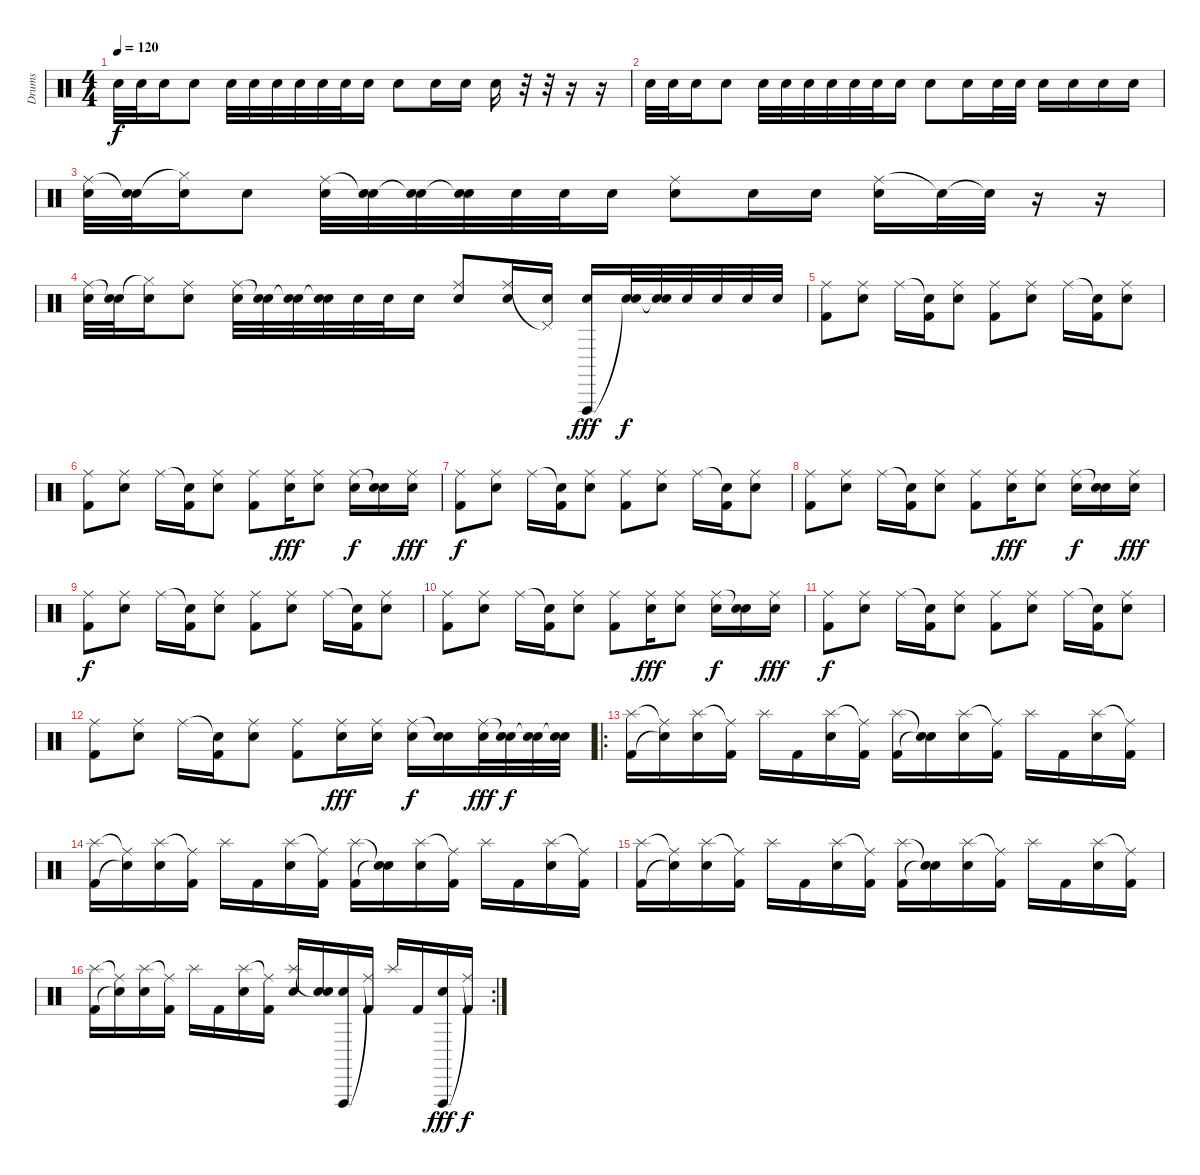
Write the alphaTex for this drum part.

\track ("Drums" "Drums") {instrument percussion}
\staff {score}
\articulation defaults
\ts (4 4)
\tempo 120
\clef neutral
\ks c "Electric Snare (hit)".32{dy f} "Electric Snare (hit)".32 "Electric Snare (hit)".16 "Electric Snare (hit)".8 "Electric Snare (hit)".32 "Electric Snare (hit)".32 "Electric Snare (hit)".32 "Electric Snare (hit)".32 "Electric Snare (hit)".32 "Electric Snare (hit)".32 "Electric Snare (hit)".16 "Electric Snare (hit)".8 "Electric Snare (hit)".16 "Electric Snare (hit)".16 "Electric Snare (hit)".16
r.32 r.32 r.16 r.16 |
"Electric Snare (hit)".32 "Electric Snare (hit)".32 "Electric Snare (hit)".16 "Electric Snare (hit)".8 "Electric Snare (hit)".32 "Electric Snare (hit)".32 "Electric Snare (hit)".32 "Electric Snare (hit)".32 "Electric Snare (hit)".32 "Electric Snare (hit)".32 "Electric Snare (hit)".16 "Electric Snare (hit)".8 "Electric Snare (hit)".16 "Electric Snare (hit)".32 "Electric Snare (hit)".32 "Electric Snare (hit)".16 "Electric Snare (hit)".16 "Electric Snare (hit)".16 "Electric Snare (hit)".16 |
("Ride (middle)" "Electric Snare (hit)").32 ("Snare (hit)"{t} "Electric Snare (hit)").32 ("Hi-Hat (closed)"{t} "Electric Snare (hit)").16 "Electric Snare (hit)".8 ("Ride (middle)" "Electric Snare (hit)").32 ("Snare (hit)"{t} "Electric Snare (hit)").32 ("Snare (hit)"{t} "Electric Snare (hit)").32 ("Snare (hit)"{t} "Electric Snare (hit)").32 "Electric Snare (hit)".32 "Electric Snare (hit)".32 "Electric Snare (hit)".16 ("Ride (middle)" "Electric Snare (hit)").8 "Electric Snare (hit)".16 "Electric Snare (hit)".16 ("Ride (middle)" "Electric Snare (hit)").16 "Snare (hit)"{t}.32 "Snare (hit)"{t}.32 r.16 r.16 |
("Ride (middle)" "Electric Snare (hit)").32 ("Snare (hit)"{t} "Electric Snare (hit)").32 ("Hi-Hat (closed)"{t} "Electric Snare (hit)").16 ("Ride (middle)" "Electric Snare (hit)").8 ("Ride (middle)" "Electric Snare (hit)").32 ("Snare (hit)"{t} "Electric Snare (hit)").32 ("Snare (hit)"{t} "Electric Snare (hit)").32 ("Snare (hit)"{t} "Electric Snare (hit)").32 "Electric Snare (hit)".32 "Electric Snare (hit)".32 "Electric Snare (hit)".16 ("Ride (middle)" "Electric Snare (hit)").8 ("Ride (middle)" "Electric Snare (hit)").16 ("Pedal Hi-Hat (hit)"{t} "Electric Snare (hit)").16 ("Vibraslap (hit)" "Electric Snare (hit)").16{dy fff} ("Snare (hit)"{t} "Electric Snare (hit)").32{dy f} ("Snare (hit)"{t} "Electric Snare (hit)").32 "Electric Snare (hit)".32 "Electric Snare (hit)".32 "Electric Snare (hit)".32 "Electric Snare (hit)".32 |
("Ride (middle)" "Kick (hit) 2").8 ("Ride (middle)" "Electric Snare (hit)").8 "Ride (middle)".16 ("Snare (hit)"{t} "Kick (hit) 2").16 ("Ride (middle)" "Electric Snare (hit)").8 ("Ride (middle)" "Kick (hit) 2").8 ("Ride (middle)" "Electric Snare (hit)").8 "Ride (middle)".16 ("Snare (hit)"{t} "Kick (hit) 2").16 ("Ride (middle)" "Electric Snare (hit)").8 |
("Ride (middle)" "Kick (hit) 2").8 ("Ride (middle)" "Electric Snare (hit)").8 "Ride (middle)".16 ("Snare (hit)"{t} "Kick (hit) 2").16 ("Ride (middle)" "Electric Snare (hit)").8 ("Ride (middle)" "Kick (hit) 2").8 ("Ride (middle)" "Electric Snare (hit)").16{dy fff} ("Ride (middle)" "Electric Snare (hit)").8 ("Ride (middle)" "Electric Snare (hit)").16{dy f} ("Snare (hit)"{t} "Electric Snare (hit)").16 ("Ride (middle)" "Electric Snare (hit)").16{dy fff} |
("Ride (middle)" "Kick (hit) 2").8{dy f} ("Ride (middle)" "Electric Snare (hit)").8 "Ride (middle)".16 ("Snare (hit)"{t} "Kick (hit) 2").16 ("Ride (middle)" "Electric Snare (hit)").8 ("Ride (middle)" "Kick (hit) 2").8 ("Ride (middle)" "Electric Snare (hit)").8 "Ride (middle)".16 ("Snare (hit)"{t} "Kick (hit) 2").16 ("Ride (middle)" "Electric Snare (hit)").8 |
("Ride (middle)" "Kick (hit) 2").8 ("Ride (middle)" "Electric Snare (hit)").8 "Ride (middle)".16 ("Snare (hit)"{t} "Kick (hit) 2").16 ("Ride (middle)" "Electric Snare (hit)").8 ("Ride (middle)" "Kick (hit) 2").8 ("Ride (middle)" "Electric Snare (hit)").16{dy fff} ("Ride (middle)" "Electric Snare (hit)").8 ("Ride (middle)" "Electric Snare (hit)").16{dy f} ("Snare (hit)"{t} "Electric Snare (hit)").16 ("Ride (middle)" "Electric Snare (hit)").16{dy fff} |
("Ride (middle)" "Kick (hit) 2").8{dy f} ("Ride (middle)" "Electric Snare (hit)").8 "Ride (middle)".16 ("Snare (hit)"{t} "Kick (hit) 2").16 ("Ride (middle)" "Electric Snare (hit)").8 ("Ride (middle)" "Kick (hit) 2").8 ("Ride (middle)" "Electric Snare (hit)").8 "Ride (middle)".16 ("Snare (hit)"{t} "Kick (hit) 2").16 ("Ride (middle)" "Electric Snare (hit)").8 |
("Ride (middle)" "Kick (hit) 2").8 ("Ride (middle)" "Electric Snare (hit)").8 "Ride (middle)".16 ("Snare (hit)"{t} "Kick (hit) 2").16 ("Ride (middle)" "Electric Snare (hit)").8 ("Ride (middle)" "Kick (hit) 2").8 ("Ride (middle)" "Electric Snare (hit)").16{dy fff} ("Ride (middle)" "Electric Snare (hit)").8 ("Ride (middle)" "Electric Snare (hit)").16{dy f} ("Snare (hit)"{t} "Electric Snare (hit)").16 ("Ride (middle)" "Electric Snare (hit)").16{dy fff} |
("Ride (middle)" "Kick (hit) 2").8{dy f} ("Ride (middle)" "Electric Snare (hit)").8 "Ride (middle)".16 ("Snare (hit)"{t} "Kick (hit) 2").16 ("Ride (middle)" "Electric Snare (hit)").8 ("Ride (middle)" "Kick (hit) 2").8 ("Ride (middle)" "Electric Snare (hit)").8 "Ride (middle)".16 ("Snare (hit)"{t} "Kick (hit) 2").16 ("Ride (middle)" "Electric Snare (hit)").8 |
("Ride (middle)" "Kick (hit) 2").8 ("Ride (middle)" "Electric Snare (hit)").8 "Ride (middle)".16 ("Snare (hit)"{t} "Kick (hit) 2").16 ("Ride (middle)" "Electric Snare (hit)").8 ("Ride (middle)" "Kick (hit) 2").8 ("Ride (middle)" "Electric Snare (hit)").16{dy fff} ("Ride (middle)" "Electric Snare (hit)").16 ("Ride (middle)" "Electric Snare (hit)").16{dy f} ("Snare (hit)"{t} "Electric Snare (hit)").16 ("Ride (middle)" "Electric Snare (hit)").32{dy fff} ("Snare (hit)"{t} "Electric Snare (hit)").32{dy f} ("Snare (hit)"{t} "Electric Snare (hit)").32 ("Snare (hit)"{t} "Electric Snare (hit)").32 |
\ro
("Splash (hit)" "Kick (hit) 2").16 ("Ride (middle)"{t} "Snare (hit)"{t}).16 ("Splash (hit)" "Electric Snare (hit)").16 ("Ride (middle)"{t} "Kick (hit) 2").16 "Splash (hit)".16 "Kick (hit) 2".16 ("Splash (hit)" "Electric Snare (hit)").16 ("Ride (middle)"{t} "Kick (hit) 2").16 ("Splash (hit)" "Kick (hit) 2").16 ("Snare (hit)"{t} "Snare (hit)"{t}).16 ("Splash (hit)" "Electric Snare (hit)").16 ("Ride (middle)"{t} "Kick (hit) 2").16 "Splash (hit)".16 "Kick (hit) 2".16 ("Splash (hit)" "Electric Snare (hit)").16 ("Ride (middle)"{t} "Kick (hit) 2").16 |
("Splash (hit)" "Kick (hit) 2").16 ("Ride (middle)"{t} "Snare (hit)"{t}).16 ("Splash (hit)" "Electric Snare (hit)").16 ("Ride (middle)"{t} "Kick (hit) 2").16 "Splash (hit)".16 "Kick (hit) 2".16 ("Splash (hit)" "Electric Snare (hit)").16 ("Ride (middle)"{t} "Kick (hit) 2").16 ("Splash (hit)" "Kick (hit) 2").16 ("Snare (hit)"{t} "Snare (hit)"{t}).16 ("Splash (hit)" "Electric Snare (hit)").16 ("Ride (middle)"{t} "Kick (hit) 2").16 "Splash (hit)".16 "Kick (hit) 2".16 ("Splash (hit)" "Electric Snare (hit)").16 ("Ride (middle)"{t} "Kick (hit) 2").16 |
("Splash (hit)" "Kick (hit) 2").16 ("Ride (middle)"{t} "Snare (hit)"{t}).16 ("Splash (hit)" "Electric Snare (hit)").16 ("Ride (middle)"{t} "Kick (hit) 2").16 "Splash (hit)".16 "Kick (hit) 2".16 ("Splash (hit)" "Electric Snare (hit)").16 ("Ride (middle)"{t} "Kick (hit) 2").16 ("Splash (hit)" "Kick (hit) 2").16 ("Snare (hit)"{t} "Snare (hit)"{t}).16 ("Splash (hit)" "Electric Snare (hit)").16 ("Ride (middle)"{t} "Kick (hit) 2").16 "Splash (hit)".16 "Kick (hit) 2".16 ("Splash (hit)" "Electric Snare (hit)").16 ("Ride (middle)"{t} "Kick (hit) 2").16 |
\rc 2
("Splash (hit)" "Kick (hit) 2").16 ("Ride (middle)"{t} "Snare (hit)"{t}).16 ("Splash (hit)" "Electric Snare (hit)").16 ("Ride (middle)"{t} "Kick (hit) 2").16 "Splash (hit)".16 "Kick (hit) 2".16 ("Splash (hit)" "Electric Snare (hit)").16 ("Ride (middle)"{t} "Kick (hit) 2").16 ("Splash (hit)" "Electric Snare (hit)").16 ("Snare (hit)"{t} "Electric Snare (hit)").16 ("Vibraslap (hit)" "Electric Snare (hit)").16 ("Ride (middle)"{t} "Kick (hit) 2").16 "Splash (hit)".16 "Kick (hit) 2".16 ("Vibraslap (hit)" "Electric Snare (hit)").16{dy fff} ("Ride (middle)"{t} "Kick (hit) 2").16{dy f}
